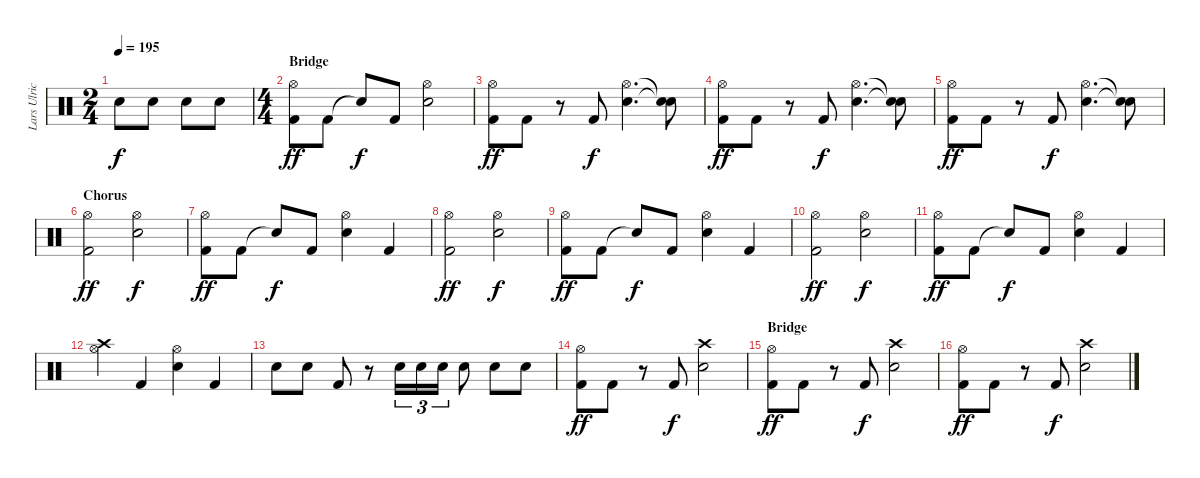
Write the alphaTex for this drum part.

\track ("Lars Ulrich" "Lars Ulric") {instrument percussion}
\staff {score}
\articulation defaults
\ts (2 4)
\tempo 195
\clef neutral
\ks c "Snare (hit) 2".8{dy f} "Snare (hit) 2".8 "Snare (hit) 2".8 "Snare (hit) 2".8
|
\ts (4 4)
\section ("" "Bridge")
("Kick (hit) 2" "Hi-Hat (open)").8{dy ff} "Kick (hit) 2".8 "Snare (hit)"{t}.8{dy f} "Kick (hit) 2".8 ("Snare (hit) 2" "Hi-Hat (open)").2 |
("Kick (hit) 2" "Hi-Hat (open)").8{dy ff} "Kick (hit) 2".8 r.8 "Kick (hit) 2".8{dy f} ("Snare (hit) 2" "Hi-Hat (open)").4{d} ("Snare (hit)"{t} "Snare (hit)"{t}).8 |
("Kick (hit) 2" "Hi-Hat (open)").8{dy ff} "Kick (hit) 2".8 r.8 "Kick (hit) 2".8{dy f} ("Snare (hit) 2" "Hi-Hat (open)").4{d} ("Snare (hit)"{t} "Snare (hit)"{t}).8 |
("Kick (hit) 2" "Hi-Hat (open)").8{dy ff} "Kick (hit) 2".8 r.8 "Kick (hit) 2".8{dy f} ("Snare (hit) 2" "Hi-Hat (open)").4{d} ("Snare (hit)"{t} "Snare (hit)"{t}).8 |
\section ("" "Chorus")
("Kick (hit) 2" "Hi-Hat (open)").2{dy ff} ("Snare (hit) 2" "Hi-Hat (open)").2{dy f} |
("Kick (hit) 2" "Hi-Hat (open)").8{dy ff} "Kick (hit) 2".8 "Snare (hit)"{t}.8{dy f} "Kick (hit) 2".8 ("Snare (hit) 2" "Hi-Hat (open)").4 "Kick (hit) 2".4 |
("Kick (hit) 2" "Hi-Hat (open)").2{dy ff} ("Snare (hit) 2" "Hi-Hat (open)").2{dy f} |
("Kick (hit) 2" "Hi-Hat (open)").8{dy ff} "Kick (hit) 2".8 "Snare (hit)"{t}.8{dy f} "Kick (hit) 2".8 ("Snare (hit) 2" "Hi-Hat (open)").4 "Kick (hit) 2".4 |
("Kick (hit) 2" "Hi-Hat (open)").2{dy ff} ("Snare (hit) 2" "Hi-Hat (open)").2{dy f} |
("Kick (hit) 2" "Hi-Hat (open)").8{dy ff} "Kick (hit) 2".8 "Snare (hit)"{t}.8{dy f} "Kick (hit) 2".8 ("Snare (hit) 2" "Hi-Hat (open)").4 "Kick (hit) 2".4 |
("Crash high (hit)" "Hi-Hat (open)").4 "Kick (hit) 2".4 ("Hi-Hat (open)" "Snare (hit) 2").4 "Kick (hit) 2".4 |
"Snare (hit) 2".8 "Snare (hit) 2".8 "Kick (hit) 2".8 r.8 "Snare (hit) 2".16{tu (3 2)} "Snare (hit) 2".16{tu (3 2)} "Snare (hit) 2".16{tu (3 2)} "Snare (hit) 2".8 "Snare (hit) 2".8 "Snare (hit) 2".8 |
("Kick (hit) 2" "Hi-Hat (open)").8{dy ff} "Kick (hit) 2".8 r.8 "Kick (hit) 2".8{dy f} ("Snare (hit) 2" "Crash high (hit)").2 |
\section ("" "Bridge")
("Kick (hit) 2" "Hi-Hat (open)").8{dy ff} "Kick (hit) 2".8 r.8 "Kick (hit) 2".8{dy f} ("Snare (hit) 2" "Crash high (hit)").2 |
("Kick (hit) 2" "Hi-Hat (open)").8{dy ff} "Kick (hit) 2".8 r.8 "Kick (hit) 2".8{dy f} ("Snare (hit) 2" "Crash high (hit)").2
